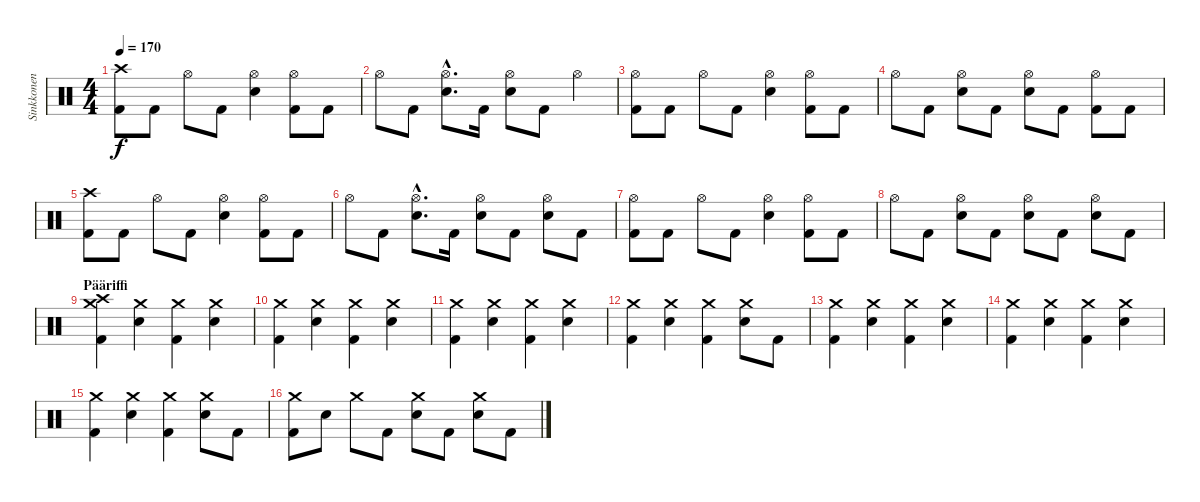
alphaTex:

\track ("Sinkkonen" "Sinkkonen") {instrument percussion}
\staff {score}
\articulation defaults
\ts (4 4)
\tempo 170
\clef neutral
\ks c
("Crash high (hit)" "Kick (hit) 2").8{dy f} "Kick (hit) 2".8 "Hi-Hat (open)".8 "Kick (hit) 2".8 ("Hi-Hat (open)" "Electric Snare (hit)").4 ("Hi-Hat (open)" "Kick (hit) 2").8 "Kick (hit) 2".8 |
"Hi-Hat (open)".8 "Kick (hit) 2".8 ("Hi-Hat (open)"{hac} "Electric Snare (hit)"{hac}).8{d} "Kick (hit) 2".16 ("Hi-Hat (open)" "Electric Snare (hit)").8 "Kick (hit) 2".8 "Hi-Hat (open)".4 |
("Hi-Hat (open)" "Kick (hit) 2").8 "Kick (hit) 2".8 "Hi-Hat (open)".8 "Kick (hit) 2".8 ("Hi-Hat (open)" "Electric Snare (hit)").4 ("Hi-Hat (open)" "Kick (hit) 2").8 "Kick (hit) 2".8 |
"Hi-Hat (open)".8 "Kick (hit) 2".8 ("Hi-Hat (open)" "Electric Snare (hit)").8 "Kick (hit) 2".8 ("Hi-Hat (open)" "Electric Snare (hit)").8 "Kick (hit) 2".8 ("Hi-Hat (open)" "Kick (hit) 2").8 "Kick (hit) 2".8 |
("Crash high (hit)" "Kick (hit) 2").8 "Kick (hit) 2".8 "Hi-Hat (open)".8 "Kick (hit) 2".8 ("Hi-Hat (open)" "Electric Snare (hit)").4 ("Hi-Hat (open)" "Kick (hit) 2").8 "Kick (hit) 2".8 |
"Hi-Hat (open)".8 "Kick (hit) 2".8 ("Hi-Hat (open)"{hac} "Electric Snare (hit)"{hac}).8{d} "Kick (hit) 2".16 ("Hi-Hat (open)" "Electric Snare (hit)").8 "Kick (hit) 2".8 ("Hi-Hat (open)" "Electric Snare (hit)").8 "Kick (hit) 2".8 |
("Hi-Hat (open)" "Kick (hit) 2").8 "Kick (hit) 2".8 "Hi-Hat (open)".8 "Kick (hit) 2".8 ("Hi-Hat (open)" "Electric Snare (hit)").4 ("Hi-Hat (open)" "Kick (hit) 2").8 "Kick (hit) 2".8 |
"Hi-Hat (open)".8 "Kick (hit) 2".8 ("Hi-Hat (open)" "Electric Snare (hit)").8 "Kick (hit) 2".8 ("Hi-Hat (open)" "Electric Snare (hit)").8 "Kick (hit) 2".8 ("Hi-Hat (open)" "Electric Snare (hit)").8 "Kick (hit) 2".8 |
\section ("" "Pääriffi")
("Crash medium (hit)" "Crash high (hit)" "Kick (hit) 2").4 ("Crash medium (hit)" "Electric Snare (hit)").4 ("Crash medium (hit)" "Kick (hit) 2").4 ("Crash medium (hit)" "Electric Snare (hit)").4 |
("Crash medium (hit)" "Kick (hit) 2").4 ("Crash medium (hit)" "Electric Snare (hit)").4 ("Crash medium (hit)" "Kick (hit) 2").4 ("Crash medium (hit)" "Electric Snare (hit)").4 |
("Crash medium (hit)" "Kick (hit) 2").4 ("Crash medium (hit)" "Electric Snare (hit)").4 ("Crash medium (hit)" "Kick (hit) 2").4 ("Crash medium (hit)" "Electric Snare (hit)").4 |
("Crash medium (hit)" "Kick (hit) 2").4 ("Crash medium (hit)" "Electric Snare (hit)").4 ("Crash medium (hit)" "Kick (hit) 2").4 ("Crash medium (hit)" "Electric Snare (hit)").8 "Kick (hit) 2".8 |
("Crash medium (hit)" "Kick (hit) 2").4 ("Crash medium (hit)" "Electric Snare (hit)").4 ("Crash medium (hit)" "Kick (hit) 2").4 ("Crash medium (hit)" "Electric Snare (hit)").4 |
("Crash medium (hit)" "Kick (hit) 2").4 ("Crash medium (hit)" "Electric Snare (hit)").4 ("Crash medium (hit)" "Kick (hit) 2").4 ("Crash medium (hit)" "Electric Snare (hit)").4 |
("Crash medium (hit)" "Kick (hit) 2").4 ("Crash medium (hit)" "Electric Snare (hit)").4 ("Crash medium (hit)" "Kick (hit) 2").4 ("Crash medium (hit)" "Electric Snare (hit)").8 "Kick (hit) 2".8 |
("Crash medium (hit)" "Kick (hit) 2").8 "Electric Snare (hit)".8 "Crash medium (hit)".8 "Kick (hit) 2".8 ("Crash medium (hit)" "Electric Snare (hit)").8 "Kick (hit) 2".8 ("Crash medium (hit)" "Electric Snare (hit)").8 "Kick (hit) 2".8
